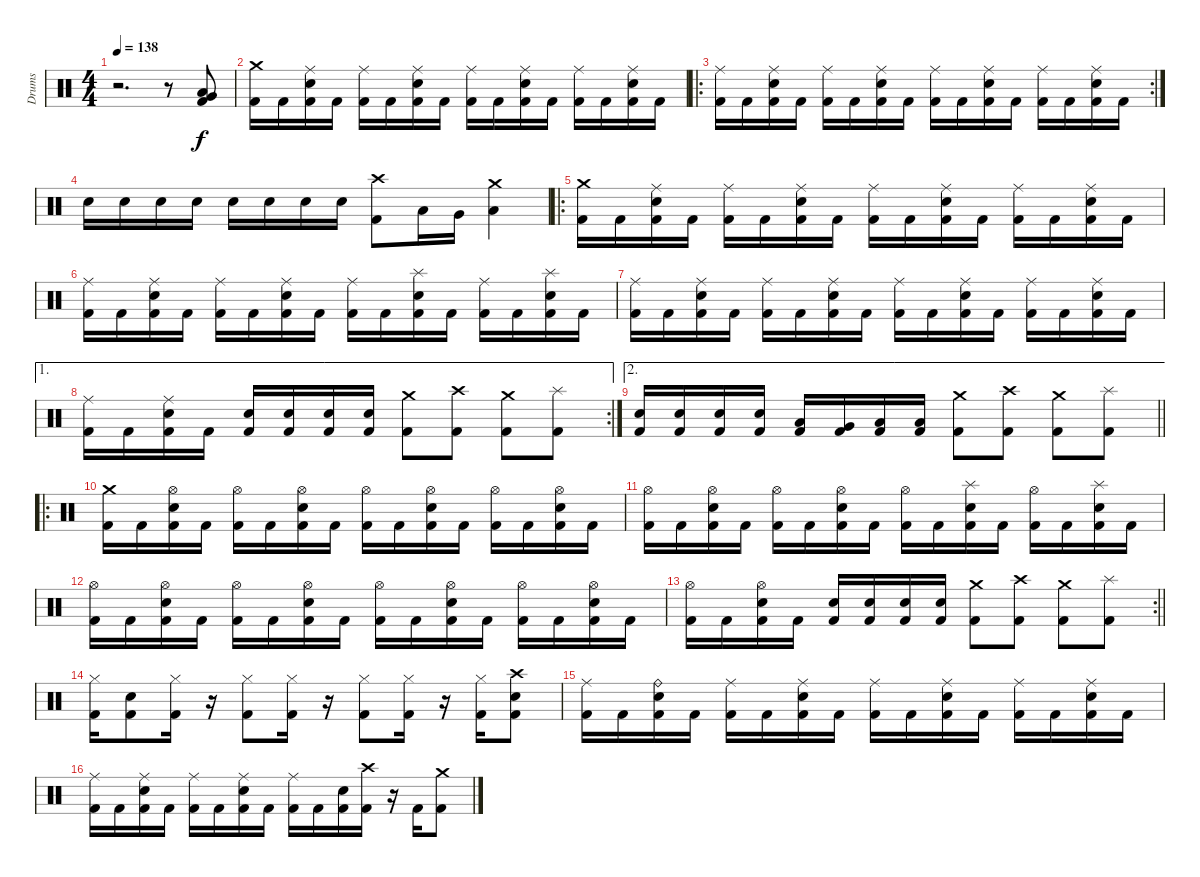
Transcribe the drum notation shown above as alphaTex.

\track ("Drums" "Drums") {instrument percussion}
\staff {score}
\articulation defaults
\ts (4 4)
\tempo 138
\clef neutral
\ks c
r.2{d dy f} r.8 ("Very Low Tom (hit)" "Low Tom (hit)" "Kick (hit) 2").8 |
("Crash medium (hit)" "Kick (hit) 2").16 "Kick (hit) 2".16 ("Ride (middle)" "Electric Snare (hit)" "Kick (hit) 2").16 "Kick (hit) 2".16 ("Ride (middle)" "Kick (hit) 2").16 "Kick (hit) 2".16 ("Ride (middle)" "Electric Snare (hit)" "Kick (hit) 2").16 "Kick (hit) 2".16 ("Ride (middle)" "Kick (hit) 2").16 "Kick (hit) 2".16 ("Ride (middle)" "Electric Snare (hit)" "Kick (hit) 2").16 "Kick (hit) 2".16 ("Ride (middle)" "Kick (hit) 2").16 "Kick (hit) 2".16 ("Ride (middle)" "Electric Snare (hit)" "Kick (hit) 2").16 "Kick (hit) 2".16 |
\ro
\rc 2
("Ride (middle)" "Kick (hit) 2").16 "Kick (hit) 2".16 ("Ride (middle)" "Electric Snare (hit)" "Kick (hit) 2").16 "Kick (hit) 2".16 ("Ride (middle)" "Kick (hit) 2").16 "Kick (hit) 2".16 ("Ride (middle)" "Electric Snare (hit)" "Kick (hit) 2").16 "Kick (hit) 2".16 ("Ride (middle)" "Kick (hit) 2").16 "Kick (hit) 2".16 ("Ride (middle)" "Electric Snare (hit)" "Kick (hit) 2").16 "Kick (hit) 2".16 ("Ride (middle)" "Kick (hit) 2").16 "Kick (hit) 2".16 ("Ride (middle)" "Electric Snare (hit)" "Kick (hit) 2").16 "Kick (hit) 2".16 |
"Electric Snare (hit)".16 "Electric Snare (hit)".16 "Electric Snare (hit)".16 "Electric Snare (hit)".16 "Electric Snare (hit)".16 "Electric Snare (hit)".16 "Electric Snare (hit)".16 "Electric Snare (hit)".16 ("Crash high (hit)" "Kick (hit) 2").8 "Low Tom (hit)".16 "Very Low Tom (hit)".16 ("Crash medium (hit)" "Low Floor Tom (hit)").4 |
\ro
("Crash medium (hit)" "Kick (hit) 2").16 "Kick (hit) 2".16 ("Ride (middle)" "Electric Snare (hit)" "Kick (hit) 2").16 "Kick (hit) 2".16 ("Ride (middle)" "Kick (hit) 2").16 "Kick (hit) 2".16 ("Ride (middle)" "Electric Snare (hit)" "Kick (hit) 2").16 "Kick (hit) 2".16 ("Ride (middle)" "Kick (hit) 2").16 "Kick (hit) 2".16 ("Ride (middle)" "Electric Snare (hit)" "Kick (hit) 2").16 "Kick (hit) 2".16 ("Ride (middle)" "Kick (hit) 2").16 "Kick (hit) 2".16 ("Ride (middle)" "Electric Snare (hit)" "Kick (hit) 2").16 "Kick (hit) 2".16 |
("Ride (middle)" "Kick (hit) 2").16 "Kick (hit) 2".16 ("Ride (middle)" "Electric Snare (hit)" "Kick (hit) 2").16 "Kick (hit) 2".16 ("Ride (middle)" "Kick (hit) 2").16 "Kick (hit) 2".16 ("Ride (middle)" "Electric Snare (hit)" "Kick (hit) 2").16 "Kick (hit) 2".16 ("Ride (middle)" "Kick (hit) 2").16 "Kick (hit) 2".16 ("Splash (hit)" "Electric Snare (hit)" "Kick (hit) 2").16 "Kick (hit) 2".16 ("Ride (middle)" "Kick (hit) 2").16 "Kick (hit) 2".16 ("Splash (hit)" "Electric Snare (hit)" "Kick (hit) 2").16 "Kick (hit) 2".16 |
("Ride (middle)" "Kick (hit) 2").16 "Kick (hit) 2".16 ("Ride (middle)" "Electric Snare (hit)" "Kick (hit) 2").16 "Kick (hit) 2".16 ("Ride (middle)" "Kick (hit) 2").16 "Kick (hit) 2".16 ("Ride (middle)" "Electric Snare (hit)" "Kick (hit) 2").16 "Kick (hit) 2".16 ("Ride (middle)" "Kick (hit) 2").16 "Kick (hit) 2".16 ("Ride (middle)" "Electric Snare (hit)" "Kick (hit) 2").16 "Kick (hit) 2".16 ("Ride (middle)" "Kick (hit) 2").16 "Kick (hit) 2".16 ("Ride (middle)" "Electric Snare (hit)" "Kick (hit) 2").16 "Kick (hit) 2".16 |
\ae 1
\rc 2
("Ride (middle)" "Kick (hit) 2").16 "Kick (hit) 2".16 ("Ride (middle)" "Electric Snare (hit)" "Kick (hit) 2").16 "Kick (hit) 2".16 ("Electric Snare (hit)" "Kick (hit) 2").16 ("Electric Snare (hit)" "Kick (hit) 2").16 ("Electric Snare (hit)" "Kick (hit) 2").16 ("Electric Snare (hit)" "Kick (hit) 2").16 ("Crash medium (hit)" "Kick (hit) 2").8 ("Crash high (hit)" "Kick (hit) 2").8 ("Crash medium (hit)" "Kick (hit) 2").8 ("Splash (hit)" "Kick (hit) 2").8 |
\ae 2
\barLineRight lightlight
("Electric Snare (hit)" "Kick (hit) 2").16 ("Electric Snare (hit)" "Kick (hit) 2").16 ("Electric Snare (hit)" "Kick (hit) 2").16 ("Electric Snare (hit)" "Kick (hit) 2").16 ("Low Tom (hit)" "Kick (hit) 2").16 ("Very Low Tom (hit)" "Kick (hit) 2").16 ("Low Floor Tom (hit)" "Kick (hit) 2").16 ("Low Floor Tom (hit)" "Kick (hit) 2").16 ("Crash medium (hit)" "Kick (hit) 2").8 ("Crash high (hit)" "Kick (hit) 2").8 ("Crash medium (hit)" "Kick (hit) 2").8 ("Splash (hit)" "Kick (hit) 2").8 |
\ro
("Crash medium (hit)" "Kick (hit) 2").16 "Kick (hit) 2".16 ("Hi-Hat (open)" "Electric Snare (hit)" "Kick (hit) 2").16 "Kick (hit) 2".16 ("Hi-Hat (open)" "Kick (hit) 2").16 "Kick (hit) 2".16 ("Hi-Hat (open)" "Electric Snare (hit)" "Kick (hit) 2").16 "Kick (hit) 2".16 ("Hi-Hat (open)" "Kick (hit) 2").16 "Kick (hit) 2".16 ("Hi-Hat (open)" "Electric Snare (hit)" "Kick (hit) 2").16 "Kick (hit) 2".16 ("Hi-Hat (open)" "Kick (hit) 2").16 "Kick (hit) 2".16 ("Hi-Hat (open)" "Electric Snare (hit)" "Kick (hit) 2").16 "Kick (hit) 2".16 |
("Hi-Hat (open)" "Kick (hit) 2").16 "Kick (hit) 2".16 ("Hi-Hat (open)" "Electric Snare (hit)" "Kick (hit) 2").16 "Kick (hit) 2".16 ("Hi-Hat (open)" "Kick (hit) 2").16 "Kick (hit) 2".16 ("Hi-Hat (open)" "Electric Snare (hit)" "Kick (hit) 2").16 "Kick (hit) 2".16 ("Hi-Hat (open)" "Kick (hit) 2").16 "Kick (hit) 2".16 ("Splash (hit)" "Electric Snare (hit)" "Kick (hit) 2").16 "Kick (hit) 2".16 ("Hi-Hat (open)" "Kick (hit) 2").16 "Kick (hit) 2".16 ("Splash (hit)" "Electric Snare (hit)" "Kick (hit) 2").16 "Kick (hit) 2".16 |
("Hi-Hat (open)" "Kick (hit) 2").16 "Kick (hit) 2".16 ("Hi-Hat (open)" "Electric Snare (hit)" "Kick (hit) 2").16 "Kick (hit) 2".16 ("Hi-Hat (open)" "Kick (hit) 2").16 "Kick (hit) 2".16 ("Hi-Hat (open)" "Electric Snare (hit)" "Kick (hit) 2").16 "Kick (hit) 2".16 ("Hi-Hat (open)" "Kick (hit) 2").16 "Kick (hit) 2".16 ("Hi-Hat (open)" "Electric Snare (hit)" "Kick (hit) 2").16 "Kick (hit) 2".16 ("Hi-Hat (open)" "Kick (hit) 2").16 "Kick (hit) 2".16 ("Hi-Hat (open)" "Electric Snare (hit)" "Kick (hit) 2").16 "Kick (hit) 2".16 |
\rc 2
\barLineRight lightlight
("Hi-Hat (open)" "Kick (hit) 2").16 "Kick (hit) 2".16 ("Hi-Hat (open)" "Electric Snare (hit)" "Kick (hit) 2").16 "Kick (hit) 2".16 ("Electric Snare (hit)" "Kick (hit) 2").16 ("Electric Snare (hit)" "Kick (hit) 2").16 ("Electric Snare (hit)" "Kick (hit) 2").16 ("Electric Snare (hit)" "Kick (hit) 2").16 ("Crash medium (hit)" "Kick (hit) 2").8 ("Crash high (hit)" "Kick (hit) 2").8 ("Crash medium (hit)" "Kick (hit) 2").8 ("Splash (hit)" "Kick (hit) 2").8 |
("Hi-Hat (closed)" "Kick (hit) 2").16 ("Electric Snare (hit)" "Kick (hit) 2").8 ("Hi-Hat (closed)" "Kick (hit) 2").16 r.16 ("Hi-Hat (closed)" "Kick (hit) 2").8 ("Hi-Hat (closed)" "Kick (hit) 2").16 r.16 ("Hi-Hat (closed)" "Kick (hit) 2").8 ("Hi-Hat (closed)" "Kick (hit) 2").16 r.16 ("Hi-Hat (closed)" "Kick (hit) 2").16 ("Crash high (hit)" "Electric Snare (hit)" "Kick (hit) 2").8 |
("Ride (middle)" "Kick (hit) 2").16 "Kick (hit) 2".16 ("Ride (bell)" "Electric Snare (hit)" "Kick (hit) 2").16 "Kick (hit) 2".16 ("Ride (middle)" "Kick (hit) 2").16 "Kick (hit) 2".16 ("Ride (middle)" "Electric Snare (hit)" "Kick (hit) 2").16 "Kick (hit) 2".16 ("Ride (middle)" "Kick (hit) 2").16 "Kick (hit) 2".16 ("Ride (middle)" "Electric Snare (hit)" "Kick (hit) 2").16 "Kick (hit) 2".16 ("Ride (middle)" "Kick (hit) 2").16 "Kick (hit) 2".16 ("Ride (middle)" "Electric Snare (hit)" "Kick (hit) 2").16 "Kick (hit) 2".16 |
("Ride (middle)" "Kick (hit) 2").16 "Kick (hit) 2".16 ("Ride (middle)" "Electric Snare (hit)" "Kick (hit) 2").16 "Kick (hit) 2".16 ("Ride (middle)" "Kick (hit) 2").16 "Kick (hit) 2".16 ("Ride (middle)" "Electric Snare (hit)" "Kick (hit) 2").16 "Kick (hit) 2".16 ("Ride (middle)" "Kick (hit) 2").16 "Kick (hit) 2".16 ("Electric Snare (hit)" "Kick (hit) 2").16 ("Crash high (hit)" "Kick (hit) 2").16 r.16 "Kick (hit) 2".16 ("Crash medium (hit)" "Kick (hit) 2").8
